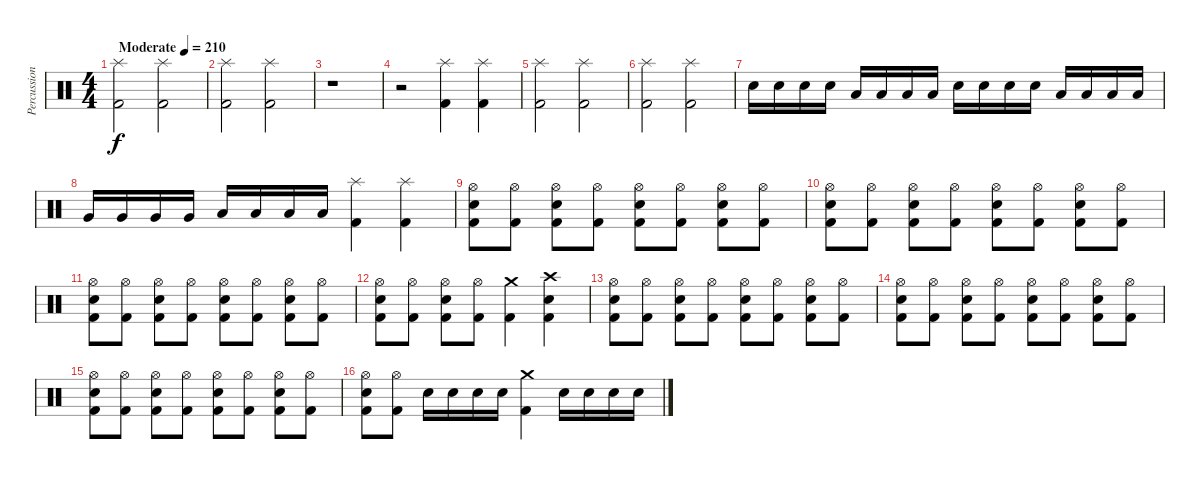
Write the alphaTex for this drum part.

\track ("Percussion" "Percussion") {instrument percussion}
\staff {score}
\articulation defaults
\ts (4 4)
\tempo (210 "Moderate")
\clef neutral
\ks c
("Kick (hit) 2" "Splash (hit)").2{dy f} ("Kick (hit) 2" "Splash (hit)").2 |
("Kick (hit) 2" "Splash (hit)").2 ("Kick (hit) 2" "Splash (hit)").2 |
r.1 |
r.2 ("Kick (hit) 2" "Splash (hit)").4 ("Kick (hit) 2" "Splash (hit)").4 |
("Kick (hit) 2" "Splash (hit)").2 ("Kick (hit) 2" "Splash (hit)").2 |
("Kick (hit) 2" "Splash (hit)").2 ("Kick (hit) 2" "Splash (hit)").2 |
"Snare (hit) 2".16 "Snare (hit) 2".16 "Snare (hit) 2".16 "Snare (hit) 2".16 "Low Tom (hit)".16 "Low Tom (hit)".16 "Low Tom (hit)".16 "Low Tom (hit)".16 "Snare (hit) 2".16 "Snare (hit) 2".16 "Snare (hit) 2".16 "Snare (hit) 2".16 "Low Tom (hit)".16 "Low Tom (hit)".16 "Low Tom (hit)".16 "Low Tom (hit)".16 |
"Very Low Tom (hit)".16 "Very Low Tom (hit)".16 "Very Low Tom (hit)".16 "Very Low Tom (hit)".16 "Low Floor Tom (hit)".16 "Low Floor Tom (hit)".16 "Low Floor Tom (hit)".16 "Low Floor Tom (hit)".16 ("Kick (hit) 2" "Splash (hit)").4 ("Kick (hit) 2" "Splash (hit)").4 |
("Kick (hit) 2" "Snare (hit) 2" "Hi-Hat (open)").8 ("Kick (hit) 2" "Hi-Hat (open)").8 ("Kick (hit) 2" "Snare (hit) 2" "Hi-Hat (open)").8 ("Kick (hit) 2" "Hi-Hat (open)").8 ("Kick (hit) 2" "Snare (hit) 2" "Hi-Hat (open)").8 ("Kick (hit) 2" "Hi-Hat (open)").8 ("Kick (hit) 2" "Snare (hit) 2" "Hi-Hat (open)").8 ("Kick (hit) 2" "Hi-Hat (open)").8 |
("Kick (hit) 2" "Snare (hit) 2" "Hi-Hat (open)").8 ("Kick (hit) 2" "Hi-Hat (open)").8 ("Kick (hit) 2" "Snare (hit) 2" "Hi-Hat (open)").8 ("Kick (hit) 2" "Hi-Hat (open)").8 ("Kick (hit) 2" "Snare (hit) 2" "Hi-Hat (open)").8 ("Kick (hit) 2" "Hi-Hat (open)").8 ("Kick (hit) 2" "Snare (hit) 2" "Hi-Hat (open)").8 ("Kick (hit) 2" "Hi-Hat (open)").8 |
("Kick (hit) 2" "Snare (hit) 2" "Hi-Hat (open)").8 ("Kick (hit) 2" "Hi-Hat (open)").8 ("Kick (hit) 2" "Snare (hit) 2" "Hi-Hat (open)").8 ("Kick (hit) 2" "Hi-Hat (open)").8 ("Kick (hit) 2" "Snare (hit) 2" "Hi-Hat (open)").8 ("Kick (hit) 2" "Hi-Hat (open)").8 ("Kick (hit) 2" "Snare (hit) 2" "Hi-Hat (open)").8 ("Kick (hit) 2" "Hi-Hat (open)").8 |
("Kick (hit) 2" "Snare (hit) 2" "Hi-Hat (open)").8 ("Kick (hit) 2" "Hi-Hat (open)").8 ("Kick (hit) 2" "Snare (hit) 2" "Hi-Hat (open)").8 ("Kick (hit) 2" "Hi-Hat (open)").8 ("Kick (hit) 2" "Crash medium (hit)").4 ("Kick (hit) 2" "Snare (hit) 2" "Crash high (hit)").4 |
("Kick (hit) 2" "Snare (hit) 2" "Hi-Hat (open)").8 ("Kick (hit) 2" "Hi-Hat (open)").8 ("Kick (hit) 2" "Snare (hit) 2" "Hi-Hat (open)").8 ("Kick (hit) 2" "Hi-Hat (open)").8 ("Kick (hit) 2" "Snare (hit) 2" "Hi-Hat (open)").8 ("Kick (hit) 2" "Hi-Hat (open)").8 ("Kick (hit) 2" "Snare (hit) 2" "Hi-Hat (open)").8 ("Kick (hit) 2" "Hi-Hat (open)").8 |
("Kick (hit) 2" "Snare (hit) 2" "Hi-Hat (open)").8 ("Kick (hit) 2" "Hi-Hat (open)").8 ("Kick (hit) 2" "Snare (hit) 2" "Hi-Hat (open)").8 ("Kick (hit) 2" "Hi-Hat (open)").8 ("Kick (hit) 2" "Snare (hit) 2" "Hi-Hat (open)").8 ("Kick (hit) 2" "Hi-Hat (open)").8 ("Kick (hit) 2" "Snare (hit) 2" "Hi-Hat (open)").8 ("Kick (hit) 2" "Hi-Hat (open)").8 |
("Kick (hit) 2" "Snare (hit) 2" "Hi-Hat (open)").8 ("Kick (hit) 2" "Hi-Hat (open)").8 ("Kick (hit) 2" "Snare (hit) 2" "Hi-Hat (open)").8 ("Kick (hit) 2" "Hi-Hat (open)").8 ("Kick (hit) 2" "Snare (hit) 2" "Hi-Hat (open)").8 ("Kick (hit) 2" "Hi-Hat (open)").8 ("Kick (hit) 2" "Snare (hit) 2" "Hi-Hat (open)").8 ("Kick (hit) 2" "Hi-Hat (open)").8 |
("Kick (hit) 2" "Snare (hit) 2" "Hi-Hat (open)").8 ("Kick (hit) 2" "Hi-Hat (open)").8 "Snare (hit) 2".16 "Snare (hit) 2".16 "Snare (hit) 2".16 "Snare (hit) 2".16 ("Kick (hit) 2" "Crash medium (hit)").4 "Snare (hit) 2".16 "Snare (hit) 2".16 "Snare (hit) 2".16 "Snare (hit) 2".16
